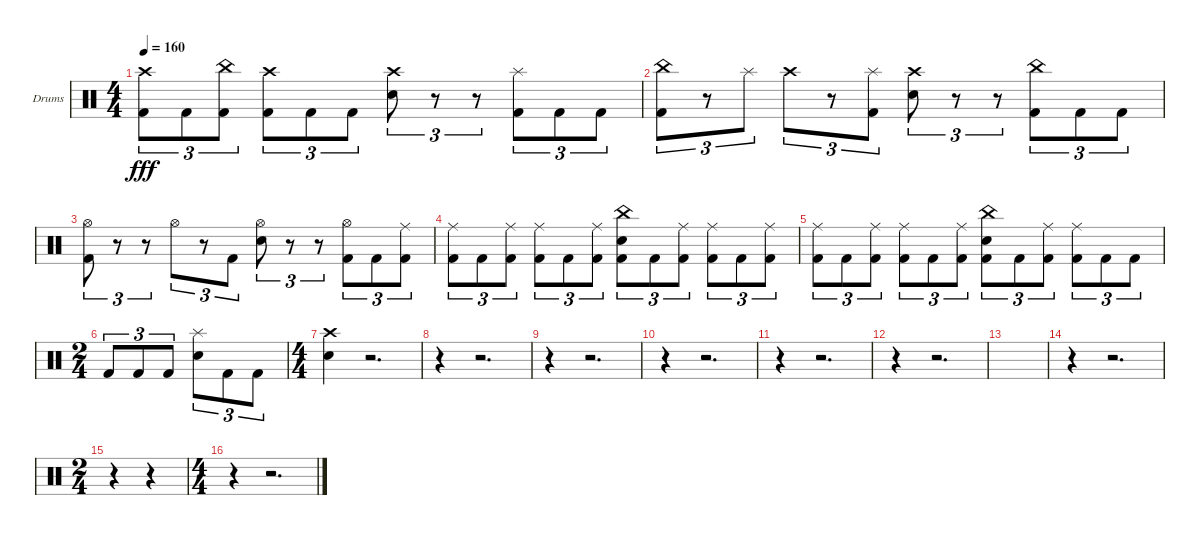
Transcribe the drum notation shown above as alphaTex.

\bracketExtendMode groupsimilarinstruments
\firstSystemTrackNameOrientation horizontal
\otherSystemsTrackNameOrientation horizontal
\track ("Gigante" "Drums") {instrument percussion}
\staff {score}
\articulation defaults
\ts (4 4)
\tempo 160
\clef neutral
\ks c
("Crash high (hit)" "Kick (hit) 2").8{tu (3 2) dy fff} "Kick (hit) 2".8{tu (3 2)} ("China (hit)" "Kick (hit) 2").8{tu (3 2)} ("Crash high (hit)" "Kick (hit) 2").8{tu (3 2)} "Kick (hit) 2".8{tu (3 2)} "Kick (hit) 2".8{tu (3 2)} ("Crash high (hit)" "Snare (hit) 2").8{tu (3 2)} r.8{tu (3 2)} r.8{tu (3 2)} ("Splash (hit)" "Kick (hit) 2").8{tu (3 2)} "Kick (hit) 2".8{tu (3 2)} "Kick (hit) 2".8{tu (3 2)} |
("China (hit)" "Kick (hit) 2").8{tu (3 2)} r.8{tu (3 2)} "Splash (hit)".8{tu (3 2)} "Crash high (hit)".8{tu (3 2)} r.8{tu (3 2)} ("Splash (hit)" "Kick (hit) 2").8{tu (3 2)} ("Crash high (hit)" "Snare (hit) 2").8{tu (3 2)} r.8{tu (3 2)} r.8{tu (3 2)} ("China (hit)" "Kick (hit) 2").8{tu (3 2)} "Kick (hit) 2".8{tu (3 2)} "Kick (hit) 2".8{tu (3 2)} |
("Hi-Hat (open)" "Kick (hit) 2").8{tu (3 2)} r.8{tu (3 2)} r.8{tu (3 2)} "Hi-Hat (open)".8{tu (3 2)} r.8{tu (3 2)} "Kick (hit) 2".8{tu (3 2)} ("Hi-Hat (open)" "Snare (hit) 2").8{tu (3 2)} r.8{tu (3 2)} r.8{tu (3 2)} ("Hi-Hat (open)" "Kick (hit) 2").8{tu (3 2)} "Kick (hit) 2".8{tu (3 2)} ("Ride (middle)" "Kick (hit) 2").8{tu (3 2)} |
("Ride (middle)" "Kick (hit) 2").8{tu (3 2)} "Kick (hit) 2".8{tu (3 2)} ("Ride (middle)" "Kick (hit) 2").8{tu (3 2)} ("Ride (middle)" "Kick (hit) 2").8{tu (3 2)} "Kick (hit) 2".8{tu (3 2)} ("Ride (middle)" "Kick (hit) 2").8{tu (3 2)} ("China (hit)" "Snare (hit) 2" "Kick (hit) 2").8{tu (3 2)} "Kick (hit) 2".8{tu (3 2)} ("Ride (middle)" "Kick (hit) 2").8{tu (3 2)} ("Ride (middle)" "Kick (hit) 2").8{tu (3 2)} "Kick (hit) 2".8{tu (3 2)} ("Ride (middle)" "Kick (hit) 2").8{tu (3 2)} |
("Ride (middle)" "Kick (hit) 2").8{tu (3 2)} "Kick (hit) 2".8{tu (3 2)} ("Ride (middle)" "Kick (hit) 2").8{tu (3 2)} ("Ride (middle)" "Kick (hit) 2").8{tu (3 2)} "Kick (hit) 2".8{tu (3 2)} ("Ride (middle)" "Kick (hit) 2").8{tu (3 2)} ("China (hit)" "Snare (hit) 2" "Kick (hit) 2").8{tu (3 2)} "Kick (hit) 2".8{tu (3 2)} ("Ride (middle)" "Kick (hit) 2").8{tu (3 2)} ("Ride (middle)" "Kick (hit) 2").8{tu (3 2)} "Kick (hit) 2".8{tu (3 2)} "Kick (hit) 2".8{tu (3 2)} |
\ts (2 4)
\beaming (8 2 2)
"Kick (hit) 2".8{tu (3 2)} "Kick (hit) 2".8{tu (3 2)} "Kick (hit) 2".8{tu (3 2)} ("Splash (hit)" "Snare (hit) 2").8{tu (3 2)} "Kick (hit) 2".8{tu (3 2)} "Kick (hit) 2".8{tu (3 2)} |
\ts (4 4)
\beaming (8 2 2 2 2)
("Crash high (hit)" "Snare (hit) 2").4 r.2{d} |
r.4 r.2{d} |
r.4 r.2{d} |
r.4 r.2{d} |
r.4 r.2{d} |
r.4 r.2{d} |
|
r.4 r.2{d} |
\ts (2 4)
\beaming (8 2 2)
r.4 r.4 |
\ts (4 4)
\beaming (8 2 2 4)
r.4 r.2{d}
